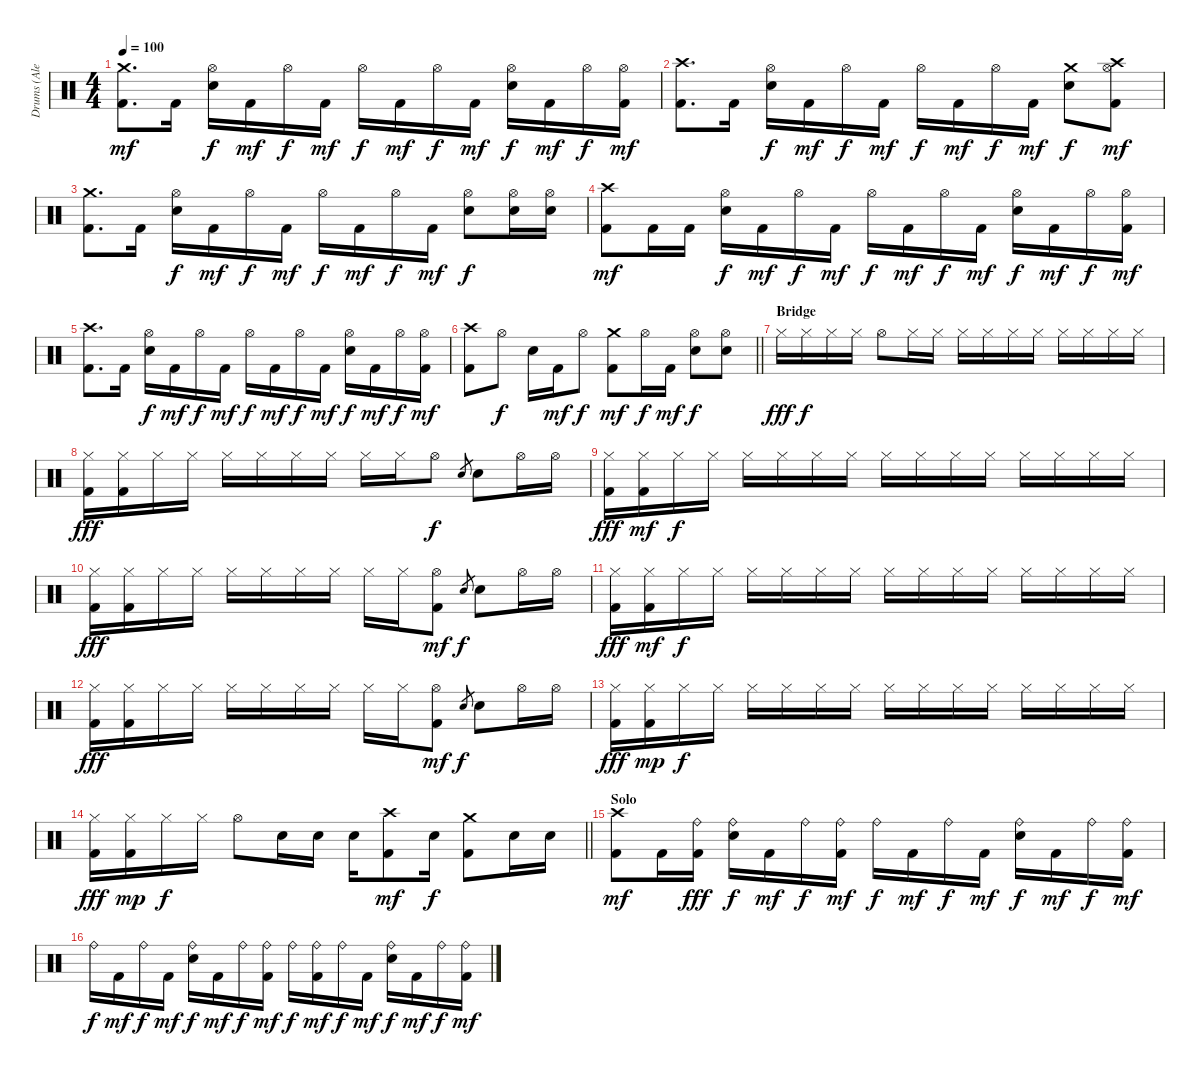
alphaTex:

\track ("Drums (Alex Van Halen)" "Drums (Ale") {instrument percussion}
\staff {score}
\articulation defaults
\ts (4 4)
\tempo 100
\clef neutral
\ks c
("Kick (hit) 2" "Crash medium (hit)").8{d dy mf} "Kick (hit) 2".16 ("Snare (hit) 2" "Hi-Hat (open)").16{dy f} "Kick (hit) 2".16{dy mf} "Hi-Hat (open)".16{dy f} "Kick (hit) 2".16{dy mf} "Hi-Hat (open)".16{dy f} "Kick (hit) 2".16{dy mf} "Hi-Hat (open)".16{dy f} "Kick (hit) 2".16{dy mf} ("Snare (hit) 2" "Hi-Hat (open)").16{dy f} "Kick (hit) 2".16{dy mf} "Hi-Hat (open)".16{dy f} ("Kick (hit) 2" "Hi-Hat (open)").16{dy mf} |
("Kick (hit) 2" "Crash high (hit)").8{d} "Kick (hit) 2".16 ("Snare (hit) 2" "Hi-Hat (open)").16{dy f} "Kick (hit) 2".16{dy mf} "Hi-Hat (open)".16{dy f} "Kick (hit) 2".16{dy mf} "Hi-Hat (open)".16{dy f} "Kick (hit) 2".16{dy mf} "Hi-Hat (open)".16{dy f} "Kick (hit) 2".16{dy mf} ("Snare (hit) 2" "Crash medium (hit)").8{dy f} ("Kick (hit) 2" "Hi-Hat (open)" "Crash high (hit)").8{dy mf} |
("Kick (hit) 2" "Crash medium (hit)").8{d} "Kick (hit) 2".16 ("Snare (hit) 2" "Hi-Hat (open)").16{dy f} "Kick (hit) 2".16{dy mf} "Hi-Hat (open)".16{dy f} "Kick (hit) 2".16{dy mf} "Hi-Hat (open)".16{dy f} "Kick (hit) 2".16{dy mf} "Hi-Hat (open)".16{dy f} "Kick (hit) 2".16{dy mf} ("Snare (hit) 2" "Hi-Hat (open)").8{dy f} ("Snare (hit) 2" "Hi-Hat (open)").16 ("Snare (hit) 2" "Hi-Hat (open)").16 |
("Kick (hit) 2" "Crash high (hit)").8{dy mf} "Kick (hit) 2".16 "Kick (hit) 2".16 ("Snare (hit) 2" "Hi-Hat (open)").16{dy f} "Kick (hit) 2".16{dy mf} "Hi-Hat (open)".16{dy f} "Kick (hit) 2".16{dy mf} "Hi-Hat (open)".16{dy f} "Kick (hit) 2".16{dy mf} "Hi-Hat (open)".16{dy f} "Kick (hit) 2".16{dy mf} ("Snare (hit) 2" "Hi-Hat (open)").16{dy f} "Kick (hit) 2".16{dy mf} "Hi-Hat (open)".16{dy f} ("Kick (hit) 2" "Hi-Hat (open)").16{dy mf} |
("Kick (hit) 2" "Crash high (hit)").8{d} "Kick (hit) 2".16 ("Snare (hit) 2" "Hi-Hat (open)").16{dy f} "Kick (hit) 2".16{dy mf} "Hi-Hat (open)".16{dy f} "Kick (hit) 2".16{dy mf} "Hi-Hat (open)".16{dy f} "Kick (hit) 2".16{dy mf} "Hi-Hat (open)".16{dy f} "Kick (hit) 2".16{dy mf} ("Snare (hit) 2" "Hi-Hat (open)").16{dy f} "Kick (hit) 2".16{dy mf} "Hi-Hat (open)".16{dy f} ("Kick (hit) 2" "Hi-Hat (open)").16{dy mf} |
\barLineRight lightlight
("Kick (hit) 2" "Crash high (hit)").8 "Hi-Hat (open)".8{dy f} "Snare (hit) 2".16 "Kick (hit) 2".16{dy mf} "Hi-Hat (open)".8{dy f} ("Kick (hit) 2" "Crash medium (hit)").8{dy mf} "Hi-Hat (open)".16{dy f} "Kick (hit) 2".16{dy mf} ("Snare (hit) 2" "Hi-Hat (open)").8{dy f} ("Snare (hit) 2" "Hi-Hat (open)").8 |
\section ("" "Bridge")
"Hi-Hat (closed)".16{dy fff} "Hi-Hat (closed)".16{dy f} "Hi-Hat (closed)".16 "Hi-Hat (closed)".16 "Hi-Hat (open)".8 "Hi-Hat (closed)".16 "Hi-Hat (closed)".16 "Hi-Hat (closed)".16 "Hi-Hat (closed)".16 "Hi-Hat (closed)".16 "Hi-Hat (closed)".16 "Hi-Hat (closed)".16 "Hi-Hat (closed)".16 "Hi-Hat (closed)".16 "Hi-Hat (closed)".16 |
("Kick (hit) 2" "Hi-Hat (closed)").16{dy fff} ("Kick (hit) 2" "Hi-Hat (closed)").16 "Hi-Hat (closed)".16 "Hi-Hat (closed)".16 "Hi-Hat (closed)".16 "Hi-Hat (closed)".16 "Hi-Hat (closed)".16 "Hi-Hat (closed)".16 "Hi-Hat (closed)".16 "Hi-Hat (closed)".16 "Hi-Hat (open)".8{dy f} "Snare (hit) 2".8{gr} "Snare (hit) 2".8 "Hi-Hat (open)".16 "Hi-Hat (open)".16 |
("Kick (hit) 2" "Hi-Hat (closed)").16{dy fff} ("Kick (hit) 2" "Hi-Hat (closed)").16{dy mf} "Hi-Hat (closed)".16{dy f} "Hi-Hat (closed)".16 "Hi-Hat (closed)".16 "Hi-Hat (closed)".16 "Hi-Hat (closed)".16 "Hi-Hat (closed)".16 "Hi-Hat (closed)".16 "Hi-Hat (closed)".16 "Hi-Hat (closed)".16 "Hi-Hat (closed)".16 "Hi-Hat (closed)".16 "Hi-Hat (closed)".16 "Hi-Hat (closed)".16 "Hi-Hat (closed)".16 |
("Kick (hit) 2" "Hi-Hat (closed)").16{dy fff} ("Kick (hit) 2" "Hi-Hat (closed)").16 "Hi-Hat (closed)".16 "Hi-Hat (closed)".16 "Hi-Hat (closed)".16 "Hi-Hat (closed)".16 "Hi-Hat (closed)".16 "Hi-Hat (closed)".16 "Hi-Hat (closed)".16 "Hi-Hat (closed)".16 ("Kick (hit) 2" "Hi-Hat (open)").8{dy mf} "Snare (hit) 2".8{gr dy f} "Snare (hit) 2".8 "Hi-Hat (open)".16 "Hi-Hat (open)".16 |
("Kick (hit) 2" "Hi-Hat (closed)").16{dy fff} ("Kick (hit) 2" "Hi-Hat (closed)").16{dy mf} "Hi-Hat (closed)".16{dy f} "Hi-Hat (closed)".16 "Hi-Hat (closed)".16 "Hi-Hat (closed)".16 "Hi-Hat (closed)".16 "Hi-Hat (closed)".16 "Hi-Hat (closed)".16 "Hi-Hat (closed)".16 "Hi-Hat (closed)".16 "Hi-Hat (closed)".16 "Hi-Hat (closed)".16 "Hi-Hat (closed)".16 "Hi-Hat (closed)".16 "Hi-Hat (closed)".16 |
("Kick (hit) 2" "Hi-Hat (closed)").16{dy fff} ("Kick (hit) 2" "Hi-Hat (closed)").16 "Hi-Hat (closed)".16 "Hi-Hat (closed)".16 "Hi-Hat (closed)".16 "Hi-Hat (closed)".16 "Hi-Hat (closed)".16 "Hi-Hat (closed)".16 "Hi-Hat (closed)".16 "Hi-Hat (closed)".16 ("Kick (hit) 2" "Hi-Hat (open)").8{dy mf} "Snare (hit) 2".8{gr dy f} "Snare (hit) 2".8 "Hi-Hat (open)".16 "Hi-Hat (open)".16 |
("Kick (hit) 2" "Hi-Hat (closed)").16{dy fff} ("Kick (hit) 2" "Hi-Hat (closed)").16{dy mp} "Hi-Hat (closed)".16{dy f} "Hi-Hat (closed)".16 "Hi-Hat (closed)".16 "Hi-Hat (closed)".16 "Hi-Hat (closed)".16 "Hi-Hat (closed)".16 "Hi-Hat (closed)".16 "Hi-Hat (closed)".16 "Hi-Hat (closed)".16 "Hi-Hat (closed)".16 "Hi-Hat (closed)".16 "Hi-Hat (closed)".16 "Hi-Hat (closed)".16 "Hi-Hat (closed)".16 |
\barLineRight lightlight
("Kick (hit) 2" "Hi-Hat (closed)").16{dy fff} ("Kick (hit) 2" "Hi-Hat (closed)").16{dy mp} "Hi-Hat (closed)".16{dy f} "Hi-Hat (closed)".16 "Hi-Hat (open)".8 "Snare (hit) 2".16 "Snare (hit) 2".16 "Snare (hit) 2".16 ("Kick (hit) 2" "Crash high (hit)").8{dy mf} "Snare (hit) 2".16{dy f} ("Kick (hit) 2" "Crash medium (hit)").8 "Snare (hit) 2".16 "Snare (hit) 2".16 |
\section ("" "Solo")
("Kick (hit) 2" "Crash high (hit)").8{dy mf} "Kick (hit) 2".16 ("Kick (hit) 2" "Ride (bell)").16{dy fff} ("Snare (hit) 2" "Ride (bell)").16{dy f} "Kick (hit) 2".16{dy mf} "Ride (bell)".16{dy f} ("Kick (hit) 2" "Ride (bell)").16{dy mf} "Ride (bell)".16{dy f} "Kick (hit) 2".16{dy mf} "Ride (bell)".16{dy f} "Kick (hit) 2".16{dy mf} ("Snare (hit) 2" "Ride (bell)").16{dy f} "Kick (hit) 2".16{dy mf} "Ride (bell)".16{dy f} ("Kick (hit) 2" "Ride (bell)").16{dy mf} |
"Ride (bell)".16{dy f} "Kick (hit) 2".16{dy mf} "Ride (bell)".16{dy f} "Kick (hit) 2".16{dy mf} ("Snare (hit) 2" "Ride (bell)").16{dy f} "Kick (hit) 2".16{dy mf} "Ride (bell)".16{dy f} ("Kick (hit) 2" "Ride (bell)").16{dy mf} "Ride (bell)".16{dy f} ("Kick (hit) 2" "Ride (bell)").16{dy mf} "Ride (bell)".16{dy f} "Kick (hit) 2".16{dy mf} ("Snare (hit) 2" "Ride (bell)").16{dy f} "Kick (hit) 2".16{dy mf} "Ride (bell)".16{dy f} ("Kick (hit) 2" "Ride (bell)").16{dy mf}
